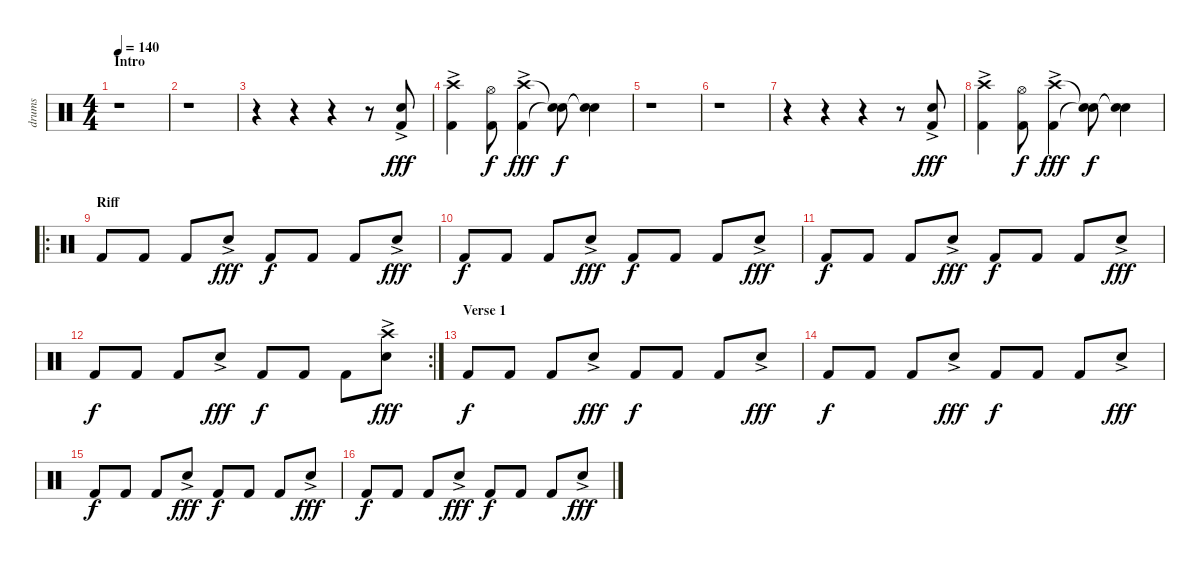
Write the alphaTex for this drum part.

\track ("drums" "drums") {instrument percussion}
\staff {score}
\articulation defaults
\ts (4 4)
\section ("" "Intro")
\tempo 140
\clef neutral
\ks c
r.1{dy fff} |
r.1 |
r.4 r.4 r.4 r.8 ("Kick (hit) 2"{ac} "Snare (hit) 2"{ac}).8 |
("Crash high (hit)"{ac} "Kick (hit) 2"{ac}).4 ("Hi-Hat (open)" "Kick (hit) 2").8{dy f} ("Crash high (hit)"{ac} "Kick (hit) 2"{ac}).4{dy fff} ("Snare (hit)"{t} "Snare (hit)"{t}).8{dy f} ("Snare (hit)"{t} "Snare (hit)"{t}).4 |
r.1 |
r.1 |
r.4 r.4 r.4 r.8 ("Kick (hit) 2"{ac} "Snare (hit) 2"{ac}).8{dy fff} |
("Crash high (hit)"{ac} "Kick (hit) 2"{ac}).4 ("Hi-Hat (open)" "Kick (hit) 2").8{dy f} ("Crash high (hit)"{ac} "Kick (hit) 2"{ac}).4{dy fff} ("Snare (hit)"{t} "Snare (hit)"{t}).8{dy f} ("Snare (hit)"{t} "Snare (hit)"{t}).4 |
\ro
\section ("" "Riff")
"Kick (hit) 2".8 "Kick (hit) 2".8 "Kick (hit) 2".8 "Snare (hit) 2"{ac}.8{dy fff} "Kick (hit) 2".8{dy f} "Kick (hit) 2".8 "Kick (hit) 2".8 "Snare (hit) 2"{ac}.8{dy fff} |
"Kick (hit) 2".8{dy f} "Kick (hit) 2".8 "Kick (hit) 2".8 "Snare (hit) 2"{ac}.8{dy fff} "Kick (hit) 2".8{dy f} "Kick (hit) 2".8 "Kick (hit) 2".8 "Snare (hit) 2"{ac}.8{dy fff} |
"Kick (hit) 2".8{dy f} "Kick (hit) 2".8 "Kick (hit) 2".8 "Snare (hit) 2"{ac}.8{dy fff} "Kick (hit) 2".8{dy f} "Kick (hit) 2".8 "Kick (hit) 2".8 "Snare (hit) 2"{ac}.8{dy fff} |
\rc 2 "Kick (hit) 2".8{dy f} "Kick (hit) 2".8 "Kick (hit) 2".8 "Snare (hit) 2"{ac}.8{dy fff} "Kick (hit) 2".8{dy f} "Kick (hit) 2".8 "Kick (hit) 2".8
("Crash high (hit)" "Snare (hit) 2"{ac}).8{dy fff} |
\section ("" "Verse 1")
"Kick (hit) 2".8{dy f} "Kick (hit) 2".8 "Kick (hit) 2".8 "Snare (hit) 2"{ac}.8{dy fff} "Kick (hit) 2".8{dy f} "Kick (hit) 2".8 "Kick (hit) 2".8 "Snare (hit) 2"{ac}.8{dy fff} |
"Kick (hit) 2".8{dy f} "Kick (hit) 2".8 "Kick (hit) 2".8 "Snare (hit) 2"{ac}.8{dy fff} "Kick (hit) 2".8{dy f} "Kick (hit) 2".8 "Kick (hit) 2".8 "Snare (hit) 2"{ac}.8{dy fff} |
"Kick (hit) 2".8{dy f} "Kick (hit) 2".8 "Kick (hit) 2".8 "Snare (hit) 2"{ac}.8{dy fff} "Kick (hit) 2".8{dy f} "Kick (hit) 2".8 "Kick (hit) 2".8 "Snare (hit) 2"{ac}.8{dy fff} |
"Kick (hit) 2".8{dy f} "Kick (hit) 2".8 "Kick (hit) 2".8 "Snare (hit) 2"{ac}.8{dy fff} "Kick (hit) 2".8{dy f} "Kick (hit) 2".8 "Kick (hit) 2".8 "Snare (hit) 2"{ac}.8{dy fff}
